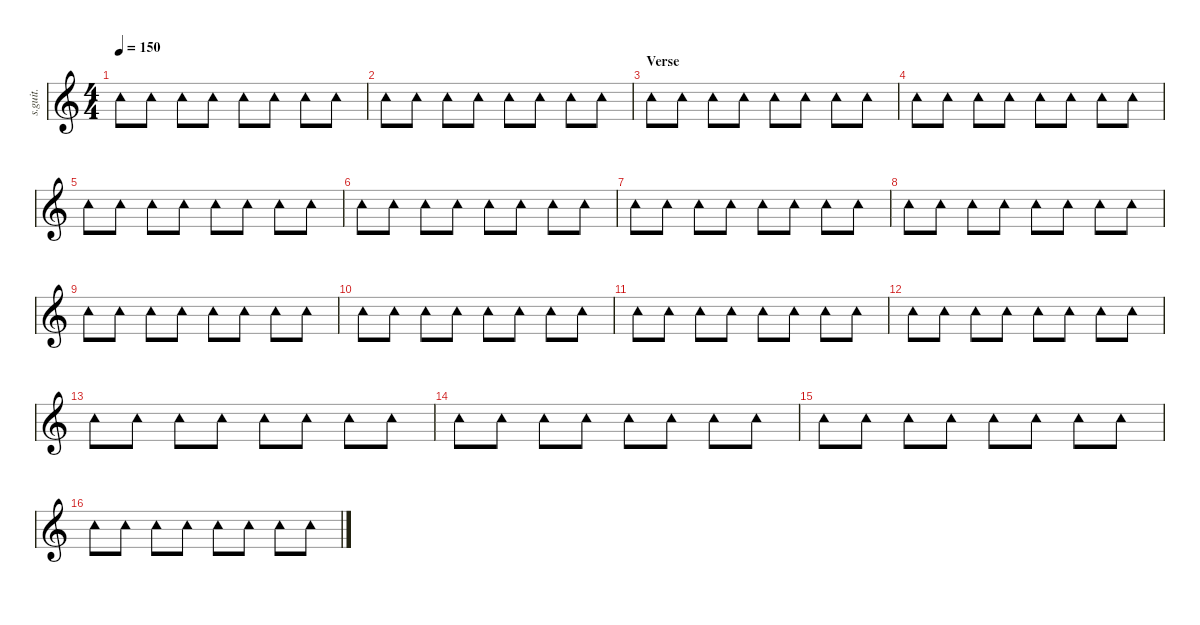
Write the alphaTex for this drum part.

\defaultSystemsLayout 4
\hideDynamics
\bracketExtendMode nobrackets
\track ("Synth Drums 2" "s.guit.") {instrument percussion}
\staff {score}
\articulation defaults
\ts (4 4)
\tempo 150
\clef g2
\ks c "Tambourine (hit)".8{lyrics (0 "") lyrics (1 "") lyrics (2 "") lyrics (3 "") lyrics (4 "") dy f} "Tambourine (hit)".8{lyrics (0 "") lyrics (1 "") lyrics (2 "") lyrics (3 "") lyrics (4 "")} "Tambourine (hit)".8{lyrics (0 "") lyrics (1 "") lyrics (2 "") lyrics (3 "") lyrics (4 "")} "Tambourine (hit)".8{lyrics (0 "") lyrics (1 "") lyrics (2 "") lyrics (3 "") lyrics (4 "")} "Tambourine (hit)".8{lyrics (0 "") lyrics (1 "") lyrics (2 "") lyrics (3 "") lyrics (4 "")} "Tambourine (hit)".8{lyrics (0 "") lyrics (1 "") lyrics (2 "") lyrics (3 "") lyrics (4 "")} "Tambourine (hit)".8{lyrics (0 "") lyrics (1 "") lyrics (2 "") lyrics (3 "") lyrics (4 "")} "Tambourine (hit)".8{lyrics (0 "") lyrics (1 "") lyrics (2 "") lyrics (3 "") lyrics (4 "")}
|
"Tambourine (hit)".8{lyrics (0 "") lyrics (1 "") lyrics (2 "") lyrics (3 "") lyrics (4 "")} "Tambourine (hit)".8{lyrics (0 "") lyrics (1 "") lyrics (2 "") lyrics (3 "") lyrics (4 "")} "Tambourine (hit)".8{lyrics (0 "") lyrics (1 "") lyrics (2 "") lyrics (3 "") lyrics (4 "")} "Tambourine (hit)".8{lyrics (0 "") lyrics (1 "") lyrics (2 "") lyrics (3 "") lyrics (4 "")} "Tambourine (hit)".8{lyrics (0 "") lyrics (1 "") lyrics (2 "") lyrics (3 "") lyrics (4 "")} "Tambourine (hit)".8{lyrics (0 "") lyrics (1 "") lyrics (2 "") lyrics (3 "") lyrics (4 "")} "Tambourine (hit)".8{lyrics (0 "") lyrics (1 "") lyrics (2 "") lyrics (3 "") lyrics (4 "")} "Tambourine (hit)".8{lyrics (0 "") lyrics (1 "") lyrics (2 "") lyrics (3 "") lyrics (4 "")} |
\section ("" "Verse")
"Tambourine (hit)".8{lyrics (0 "") lyrics (1 "") lyrics (2 "") lyrics (3 "") lyrics (4 "")} "Tambourine (hit)".8{lyrics (0 "") lyrics (1 "") lyrics (2 "") lyrics (3 "") lyrics (4 "")} "Tambourine (hit)".8{lyrics (0 "") lyrics (1 "") lyrics (2 "") lyrics (3 "") lyrics (4 "")} "Tambourine (hit)".8{lyrics (0 "") lyrics (1 "") lyrics (2 "") lyrics (3 "") lyrics (4 "")} "Tambourine (hit)".8{lyrics (0 "") lyrics (1 "") lyrics (2 "") lyrics (3 "") lyrics (4 "")} "Tambourine (hit)".8{lyrics (0 "") lyrics (1 "") lyrics (2 "") lyrics (3 "") lyrics (4 "")} "Tambourine (hit)".8{lyrics (0 "") lyrics (1 "") lyrics (2 "") lyrics (3 "") lyrics (4 "")} "Tambourine (hit)".8{lyrics (0 "") lyrics (1 "") lyrics (2 "") lyrics (3 "") lyrics (4 "")} |
"Tambourine (hit)".8{lyrics (0 "") lyrics (1 "") lyrics (2 "") lyrics (3 "") lyrics (4 "")} "Tambourine (hit)".8{lyrics (0 "") lyrics (1 "") lyrics (2 "") lyrics (3 "") lyrics (4 "")} "Tambourine (hit)".8{lyrics (0 "") lyrics (1 "") lyrics (2 "") lyrics (3 "") lyrics (4 "")} "Tambourine (hit)".8{lyrics (0 "") lyrics (1 "") lyrics (2 "") lyrics (3 "") lyrics (4 "")} "Tambourine (hit)".8{lyrics (0 "") lyrics (1 "") lyrics (2 "") lyrics (3 "") lyrics (4 "")} "Tambourine (hit)".8{lyrics (0 "") lyrics (1 "") lyrics (2 "") lyrics (3 "") lyrics (4 "")} "Tambourine (hit)".8{lyrics (0 "") lyrics (1 "") lyrics (2 "") lyrics (3 "") lyrics (4 "")} "Tambourine (hit)".8{lyrics (0 "") lyrics (1 "") lyrics (2 "") lyrics (3 "") lyrics (4 "")} |
"Tambourine (hit)".8{lyrics (0 "") lyrics (1 "") lyrics (2 "") lyrics (3 "") lyrics (4 "")} "Tambourine (hit)".8{lyrics (0 "") lyrics (1 "") lyrics (2 "") lyrics (3 "") lyrics (4 "")} "Tambourine (hit)".8{lyrics (0 "") lyrics (1 "") lyrics (2 "") lyrics (3 "") lyrics (4 "")} "Tambourine (hit)".8{lyrics (0 "") lyrics (1 "") lyrics (2 "") lyrics (3 "") lyrics (4 "")} "Tambourine (hit)".8{lyrics (0 "") lyrics (1 "") lyrics (2 "") lyrics (3 "") lyrics (4 "")} "Tambourine (hit)".8{lyrics (0 "") lyrics (1 "") lyrics (2 "") lyrics (3 "") lyrics (4 "")} "Tambourine (hit)".8{lyrics (0 "") lyrics (1 "") lyrics (2 "") lyrics (3 "") lyrics (4 "")} "Tambourine (hit)".8{lyrics (0 "") lyrics (1 "") lyrics (2 "") lyrics (3 "") lyrics (4 "")} |
"Tambourine (hit)".8{lyrics (0 "") lyrics (1 "") lyrics (2 "") lyrics (3 "") lyrics (4 "")} "Tambourine (hit)".8{lyrics (0 "") lyrics (1 "") lyrics (2 "") lyrics (3 "") lyrics (4 "")} "Tambourine (hit)".8{lyrics (0 "") lyrics (1 "") lyrics (2 "") lyrics (3 "") lyrics (4 "")} "Tambourine (hit)".8{lyrics (0 "") lyrics (1 "") lyrics (2 "") lyrics (3 "") lyrics (4 "")} "Tambourine (hit)".8{lyrics (0 "") lyrics (1 "") lyrics (2 "") lyrics (3 "") lyrics (4 "")} "Tambourine (hit)".8{lyrics (0 "") lyrics (1 "") lyrics (2 "") lyrics (3 "") lyrics (4 "")} "Tambourine (hit)".8{lyrics (0 "") lyrics (1 "") lyrics (2 "") lyrics (3 "") lyrics (4 "")} "Tambourine (hit)".8{lyrics (0 "") lyrics (1 "") lyrics (2 "") lyrics (3 "") lyrics (4 "")} |
"Tambourine (hit)".8{lyrics (0 "") lyrics (1 "") lyrics (2 "") lyrics (3 "") lyrics (4 "")} "Tambourine (hit)".8{lyrics (0 "") lyrics (1 "") lyrics (2 "") lyrics (3 "") lyrics (4 "")} "Tambourine (hit)".8{lyrics (0 "") lyrics (1 "") lyrics (2 "") lyrics (3 "") lyrics (4 "")} "Tambourine (hit)".8{lyrics (0 "") lyrics (1 "") lyrics (2 "") lyrics (3 "") lyrics (4 "")} "Tambourine (hit)".8{lyrics (0 "") lyrics (1 "") lyrics (2 "") lyrics (3 "") lyrics (4 "")} "Tambourine (hit)".8{lyrics (0 "") lyrics (1 "") lyrics (2 "") lyrics (3 "") lyrics (4 "")} "Tambourine (hit)".8{lyrics (0 "") lyrics (1 "") lyrics (2 "") lyrics (3 "") lyrics (4 "")} "Tambourine (hit)".8{lyrics (0 "") lyrics (1 "") lyrics (2 "") lyrics (3 "") lyrics (4 "")} |
"Tambourine (hit)".8{lyrics (0 "") lyrics (1 "") lyrics (2 "") lyrics (3 "") lyrics (4 "")} "Tambourine (hit)".8{lyrics (0 "") lyrics (1 "") lyrics (2 "") lyrics (3 "") lyrics (4 "")} "Tambourine (hit)".8{lyrics (0 "") lyrics (1 "") lyrics (2 "") lyrics (3 "") lyrics (4 "")} "Tambourine (hit)".8{lyrics (0 "") lyrics (1 "") lyrics (2 "") lyrics (3 "") lyrics (4 "")} "Tambourine (hit)".8{lyrics (0 "") lyrics (1 "") lyrics (2 "") lyrics (3 "") lyrics (4 "")} "Tambourine (hit)".8{lyrics (0 "") lyrics (1 "") lyrics (2 "") lyrics (3 "") lyrics (4 "")} "Tambourine (hit)".8{lyrics (0 "") lyrics (1 "") lyrics (2 "") lyrics (3 "") lyrics (4 "")} "Tambourine (hit)".8{lyrics (0 "") lyrics (1 "") lyrics (2 "") lyrics (3 "") lyrics (4 "")} |
"Tambourine (hit)".8{lyrics (0 "") lyrics (1 "") lyrics (2 "") lyrics (3 "") lyrics (4 "")} "Tambourine (hit)".8{lyrics (0 "") lyrics (1 "") lyrics (2 "") lyrics (3 "") lyrics (4 "")} "Tambourine (hit)".8{lyrics (0 "") lyrics (1 "") lyrics (2 "") lyrics (3 "") lyrics (4 "")} "Tambourine (hit)".8{lyrics (0 "") lyrics (1 "") lyrics (2 "") lyrics (3 "") lyrics (4 "")} "Tambourine (hit)".8{lyrics (0 "") lyrics (1 "") lyrics (2 "") lyrics (3 "") lyrics (4 "")} "Tambourine (hit)".8{lyrics (0 "") lyrics (1 "") lyrics (2 "") lyrics (3 "") lyrics (4 "")} "Tambourine (hit)".8{lyrics (0 "") lyrics (1 "") lyrics (2 "") lyrics (3 "") lyrics (4 "")} "Tambourine (hit)".8{lyrics (0 "") lyrics (1 "") lyrics (2 "") lyrics (3 "") lyrics (4 "")} |
"Tambourine (hit)".8{lyrics (0 "") lyrics (1 "") lyrics (2 "") lyrics (3 "") lyrics (4 "")} "Tambourine (hit)".8{lyrics (0 "") lyrics (1 "") lyrics (2 "") lyrics (3 "") lyrics (4 "")} "Tambourine (hit)".8{lyrics (0 "") lyrics (1 "") lyrics (2 "") lyrics (3 "") lyrics (4 "")} "Tambourine (hit)".8{lyrics (0 "") lyrics (1 "") lyrics (2 "") lyrics (3 "") lyrics (4 "")} "Tambourine (hit)".8{lyrics (0 "") lyrics (1 "") lyrics (2 "") lyrics (3 "") lyrics (4 "")} "Tambourine (hit)".8{lyrics (0 "") lyrics (1 "") lyrics (2 "") lyrics (3 "") lyrics (4 "")} "Tambourine (hit)".8{lyrics (0 "") lyrics (1 "") lyrics (2 "") lyrics (3 "") lyrics (4 "")} "Tambourine (hit)".8{lyrics (0 "") lyrics (1 "") lyrics (2 "") lyrics (3 "") lyrics (4 "")} |
"Tambourine (hit)".8{lyrics (0 "") lyrics (1 "") lyrics (2 "") lyrics (3 "") lyrics (4 "")} "Tambourine (hit)".8{lyrics (0 "") lyrics (1 "") lyrics (2 "") lyrics (3 "") lyrics (4 "")} "Tambourine (hit)".8{lyrics (0 "") lyrics (1 "") lyrics (2 "") lyrics (3 "") lyrics (4 "")} "Tambourine (hit)".8{lyrics (0 "") lyrics (1 "") lyrics (2 "") lyrics (3 "") lyrics (4 "")} "Tambourine (hit)".8{lyrics (0 "") lyrics (1 "") lyrics (2 "") lyrics (3 "") lyrics (4 "")} "Tambourine (hit)".8{lyrics (0 "") lyrics (1 "") lyrics (2 "") lyrics (3 "") lyrics (4 "")} "Tambourine (hit)".8{lyrics (0 "") lyrics (1 "") lyrics (2 "") lyrics (3 "") lyrics (4 "")} "Tambourine (hit)".8{lyrics (0 "") lyrics (1 "") lyrics (2 "") lyrics (3 "") lyrics (4 "")} |
"Tambourine (hit)".8{lyrics (0 "") lyrics (1 "") lyrics (2 "") lyrics (3 "") lyrics (4 "")} "Tambourine (hit)".8{lyrics (0 "") lyrics (1 "") lyrics (2 "") lyrics (3 "") lyrics (4 "")} "Tambourine (hit)".8{lyrics (0 "") lyrics (1 "") lyrics (2 "") lyrics (3 "") lyrics (4 "")} "Tambourine (hit)".8{lyrics (0 "") lyrics (1 "") lyrics (2 "") lyrics (3 "") lyrics (4 "")} "Tambourine (hit)".8{lyrics (0 "") lyrics (1 "") lyrics (2 "") lyrics (3 "") lyrics (4 "")} "Tambourine (hit)".8{lyrics (0 "") lyrics (1 "") lyrics (2 "") lyrics (3 "") lyrics (4 "")} "Tambourine (hit)".8{lyrics (0 "") lyrics (1 "") lyrics (2 "") lyrics (3 "") lyrics (4 "")} "Tambourine (hit)".8{lyrics (0 "") lyrics (1 "") lyrics (2 "") lyrics (3 "") lyrics (4 "")} |
"Tambourine (hit)".8{lyrics (0 "") lyrics (1 "") lyrics (2 "") lyrics (3 "") lyrics (4 "")} "Tambourine (hit)".8{lyrics (0 "") lyrics (1 "") lyrics (2 "") lyrics (3 "") lyrics (4 "")} "Tambourine (hit)".8{lyrics (0 "") lyrics (1 "") lyrics (2 "") lyrics (3 "") lyrics (4 "")} "Tambourine (hit)".8{lyrics (0 "") lyrics (1 "") lyrics (2 "") lyrics (3 "") lyrics (4 "")} "Tambourine (hit)".8{lyrics (0 "") lyrics (1 "") lyrics (2 "") lyrics (3 "") lyrics (4 "")} "Tambourine (hit)".8{lyrics (0 "") lyrics (1 "") lyrics (2 "") lyrics (3 "") lyrics (4 "")} "Tambourine (hit)".8{lyrics (0 "") lyrics (1 "") lyrics (2 "") lyrics (3 "") lyrics (4 "")} "Tambourine (hit)".8{lyrics (0 "") lyrics (1 "") lyrics (2 "") lyrics (3 "") lyrics (4 "")} |
"Tambourine (hit)".8{lyrics (0 "") lyrics (1 "") lyrics (2 "") lyrics (3 "") lyrics (4 "")} "Tambourine (hit)".8{lyrics (0 "") lyrics (1 "") lyrics (2 "") lyrics (3 "") lyrics (4 "")} "Tambourine (hit)".8{lyrics (0 "") lyrics (1 "") lyrics (2 "") lyrics (3 "") lyrics (4 "")} "Tambourine (hit)".8{lyrics (0 "") lyrics (1 "") lyrics (2 "") lyrics (3 "") lyrics (4 "")} "Tambourine (hit)".8{lyrics (0 "") lyrics (1 "") lyrics (2 "") lyrics (3 "") lyrics (4 "")} "Tambourine (hit)".8{lyrics (0 "") lyrics (1 "") lyrics (2 "") lyrics (3 "") lyrics (4 "")} "Tambourine (hit)".8{lyrics (0 "") lyrics (1 "") lyrics (2 "") lyrics (3 "") lyrics (4 "")} "Tambourine (hit)".8{lyrics (0 "") lyrics (1 "") lyrics (2 "") lyrics (3 "") lyrics (4 "")} |
"Tambourine (hit)".8{lyrics (0 "") lyrics (1 "") lyrics (2 "") lyrics (3 "") lyrics (4 "")} "Tambourine (hit)".8{lyrics (0 "") lyrics (1 "") lyrics (2 "") lyrics (3 "") lyrics (4 "")} "Tambourine (hit)".8{lyrics (0 "") lyrics (1 "") lyrics (2 "") lyrics (3 "") lyrics (4 "")} "Tambourine (hit)".8{lyrics (0 "") lyrics (1 "") lyrics (2 "") lyrics (3 "") lyrics (4 "")} "Tambourine (hit)".8{lyrics (0 "") lyrics (1 "") lyrics (2 "") lyrics (3 "") lyrics (4 "")} "Tambourine (hit)".8{lyrics (0 "") lyrics (1 "") lyrics (2 "") lyrics (3 "") lyrics (4 "")} "Tambourine (hit)".8{lyrics (0 "") lyrics (1 "") lyrics (2 "") lyrics (3 "") lyrics (4 "")} "Tambourine (hit)".8{lyrics (0 "") lyrics (1 "") lyrics (2 "") lyrics (3 "") lyrics (4 "")} |
"Tambourine (hit)".8{lyrics (0 "") lyrics (1 "") lyrics (2 "") lyrics (3 "") lyrics (4 "")} "Tambourine (hit)".8{lyrics (0 "") lyrics (1 "") lyrics (2 "") lyrics (3 "") lyrics (4 "")} "Tambourine (hit)".8{lyrics (0 "") lyrics (1 "") lyrics (2 "") lyrics (3 "") lyrics (4 "")} "Tambourine (hit)".8{lyrics (0 "") lyrics (1 "") lyrics (2 "") lyrics (3 "") lyrics (4 "")} "Tambourine (hit)".8{lyrics (0 "") lyrics (1 "") lyrics (2 "") lyrics (3 "") lyrics (4 "")} "Tambourine (hit)".8{lyrics (0 "") lyrics (1 "") lyrics (2 "") lyrics (3 "") lyrics (4 "")} "Tambourine (hit)".8{lyrics (0 "") lyrics (1 "") lyrics (2 "") lyrics (3 "") lyrics (4 "")} "Tambourine (hit)".8{lyrics (0 "") lyrics (1 "") lyrics (2 "") lyrics (3 "") lyrics (4 "")}
